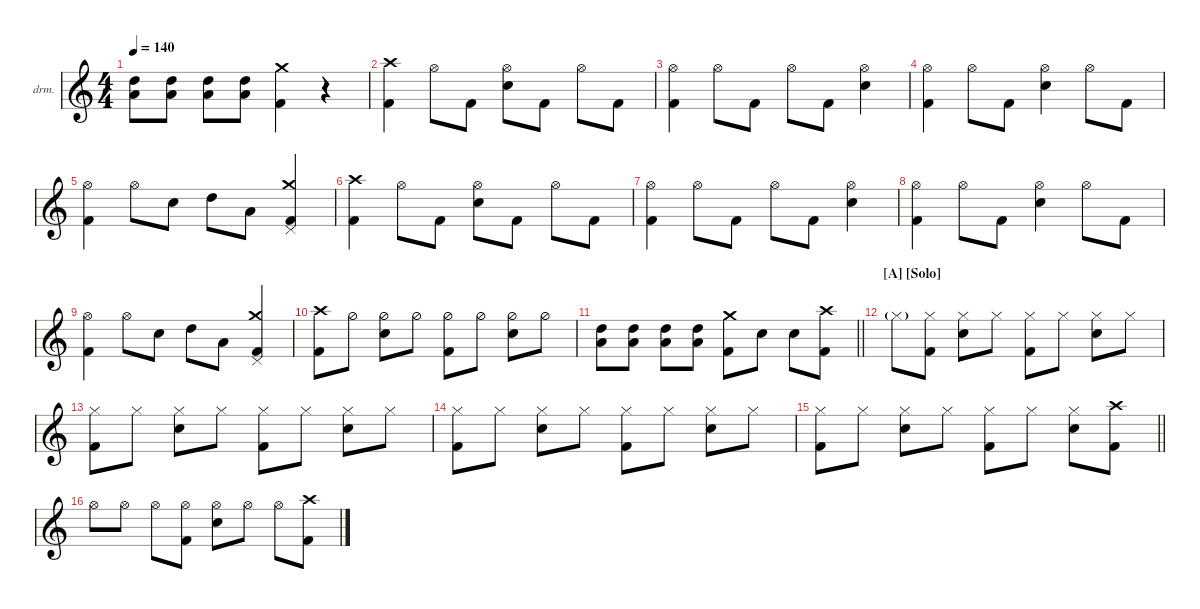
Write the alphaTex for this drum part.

\defaultSystemsLayout 4
\hideDynamics
\bracketExtendMode nobrackets
\firstSystemTrackNameOrientation horizontal
\track ("Sepehr Tajbakhsh {Nick Menza}" "drm.") {instrument percussion}
\staff {score}
\articulation defaults
\ts (4 4)
\tempo 140
\clef g2
\ks c
("High Tom (hit)" "Low Tom (hit)").8{dy f beam Down} ("High Tom (hit)" "Low Tom (hit)").8{beam Down} ("High Tom (hit)" "Low Tom (hit)").8{beam Down} ("High Tom (hit)" "Low Tom (hit)").8{beam Down} ("Crash medium (hit)" "Kick (hit) 2").4{beam Down} r.4{beam Down} |
("Crash high (hit)" "Kick (hit) 2").4{beam Down} "Hi-Hat (open)".8{beam Down} "Kick (hit) 2".8{dy fff beam Down} ("Hi-Hat (open)" "Snare (hit) 2").8{dy f beam Down} "Kick (hit) 2".8{dy fff beam Down} "Hi-Hat (open)".8{dy f beam Down} "Kick (hit) 2".8{dy fff beam Down} |
("Hi-Hat (open)" "Kick (hit) 2").4{beam Down} "Hi-Hat (open)".8{dy f beam Down} "Kick (hit) 2".8{dy fff beam Down} "Hi-Hat (open)".8{dy f beam Down} "Kick (hit) 2".8{dy fff beam Down} ("Hi-Hat (open)" "Snare (hit) 2").4{dy f beam Down} |
("Hi-Hat (open)" "Kick (hit) 2").4{beam Down} "Hi-Hat (open)".8{beam Down} "Kick (hit) 2".8{dy fff beam Down} ("Hi-Hat (open)" "Snare (hit) 2").4{dy f beam Down} "Hi-Hat (open)".8{beam Down} "Kick (hit) 2".8{dy fff beam Down} |
("Hi-Hat (open)" "Kick (hit) 2").4{beam Down} "Hi-Hat (open)".8{dy f beam Down} "Snare (hit) 2".8{beam Down} "High Tom (hit)".8{beam Down} "Low Tom (hit)".8{beam Down} ("Crash medium (hit)" "Kick (hit) 2" "Pedal Hi-Hat (hit)").4{beam Up} |
("Crash high (hit)" "Kick (hit) 2").4{beam Down} "Hi-Hat (open)".8{beam Down} "Kick (hit) 2".8{dy fff beam Down} ("Hi-Hat (open)" "Snare (hit) 2").8{dy f beam Down} "Kick (hit) 2".8{dy fff beam Down} "Hi-Hat (open)".8{dy f beam Down} "Kick (hit) 2".8{dy fff beam Down} |
("Hi-Hat (open)" "Kick (hit) 2").4{beam Down} "Hi-Hat (open)".8{dy f beam Down} "Kick (hit) 2".8{dy fff beam Down} "Hi-Hat (open)".8{dy f beam Down} "Kick (hit) 2".8{dy fff beam Down} ("Hi-Hat (open)" "Snare (hit) 2").4{dy f beam Down} |
("Hi-Hat (open)" "Kick (hit) 2").4{beam Down} "Hi-Hat (open)".8{beam Down} "Kick (hit) 2".8{dy fff beam Down} ("Hi-Hat (open)" "Snare (hit) 2").4{dy f beam Down} "Hi-Hat (open)".8{beam Down} "Kick (hit) 2".8{dy fff beam Down} |
("Hi-Hat (open)" "Kick (hit) 2").4{beam Down} "Hi-Hat (open)".8{dy f beam Down} "Snare (hit) 2".8{beam Down} "High Tom (hit)".8{beam Down} "Low Tom (hit)".8{beam Down} ("Crash medium (hit)" "Kick (hit) 2" "Pedal Hi-Hat (hit)").4{beam Up} |
("Crash high (hit)" "Kick (hit) 2").8{beam Down} "Hi-Hat (half)".8{beam Down} ("Hi-Hat (half)" "Snare (hit) 2").8{beam Down} "Hi-Hat (half)".8{beam Down} ("Hi-Hat (half)" "Kick (hit) 2").8{beam Down} "Hi-Hat (half)".8{beam Down} ("Hi-Hat (half)" "Snare (hit) 2").8{beam Down} "Hi-Hat (half)".8{beam Down} |
\barLineRight lightlight
("High Tom (hit)" "Low Tom (hit)").8{beam Down} ("High Tom (hit)" "Low Tom (hit)").8{beam Down} ("High Tom (hit)" "Low Tom (hit)").8{beam Down} ("High Tom (hit)" "Low Tom (hit)").8{beam Down} ("Crash medium (hit)" "Kick (hit) 2").8{beam Down} "Snare (hit) 2".8{beam Down} "Snare (hit) 2".8{beam Down} ("Crash high (hit)" "Kick (hit) 2").8{beam Down} |
\section ("A" "[Solo]")
"Hi-Hat (closed)"{g}.8{beam Down} ("Hi-Hat (closed)" "Kick (hit) 2").8{beam Down} ("Hi-Hat (closed)" "Snare (hit) 2").8{beam Down} "Hi-Hat (closed)".8{beam Down} ("Hi-Hat (closed)" "Kick (hit) 2").8{beam Down} "Hi-Hat (closed)".8{beam Down} ("Hi-Hat (closed)" "Snare (hit) 2").8{beam Down} "Hi-Hat (closed)".8{beam Down} |
("Hi-Hat (closed)" "Kick (hit) 2").8{beam Down} "Hi-Hat (closed)".8{beam Down} ("Hi-Hat (closed)" "Snare (hit) 2").8{beam Down} "Hi-Hat (closed)".8{beam Down} ("Hi-Hat (closed)" "Kick (hit) 2").8{beam Down} "Hi-Hat (closed)".8{beam Down} ("Hi-Hat (closed)" "Snare (hit) 2").8{beam Down} "Hi-Hat (closed)".8{beam Down} |
("Hi-Hat (closed)" "Kick (hit) 2").8{beam Down} "Hi-Hat (closed)".8{beam Down} ("Hi-Hat (closed)" "Snare (hit) 2").8{beam Down} "Hi-Hat (closed)".8{beam Down} ("Hi-Hat (closed)" "Kick (hit) 2").8{beam Down} "Hi-Hat (closed)".8{beam Down} ("Hi-Hat (closed)" "Snare (hit) 2").8{beam Down} "Hi-Hat (closed)".8{beam Down} |
\barLineRight lightlight
("Hi-Hat (closed)" "Kick (hit) 2").8{beam Down} "Hi-Hat (closed)".8{beam Down} ("Hi-Hat (closed)" "Snare (hit) 2").8{beam Down} "Hi-Hat (closed)".8{beam Down} ("Hi-Hat (closed)" "Kick (hit) 2").8{beam Down} "Hi-Hat (closed)".8{beam Down} ("Hi-Hat (closed)" "Snare (hit) 2").8{beam Down} ("Crash high (hit)" "Kick (hit) 2").8{beam Down} |
"Hi-Hat (open)".8{beam Down} "Hi-Hat (open)".8{beam Down} "Hi-Hat (open)".8{beam Down} ("Hi-Hat (open)" "Kick (hit) 2").8{beam Down} ("Hi-Hat (open)" "Snare (hit) 2").8{beam Down} "Hi-Hat (open)".8{beam Down} "Hi-Hat (open)".8{beam Down} ("Crash high (hit)" "Kick (hit) 2").8{beam Down}
